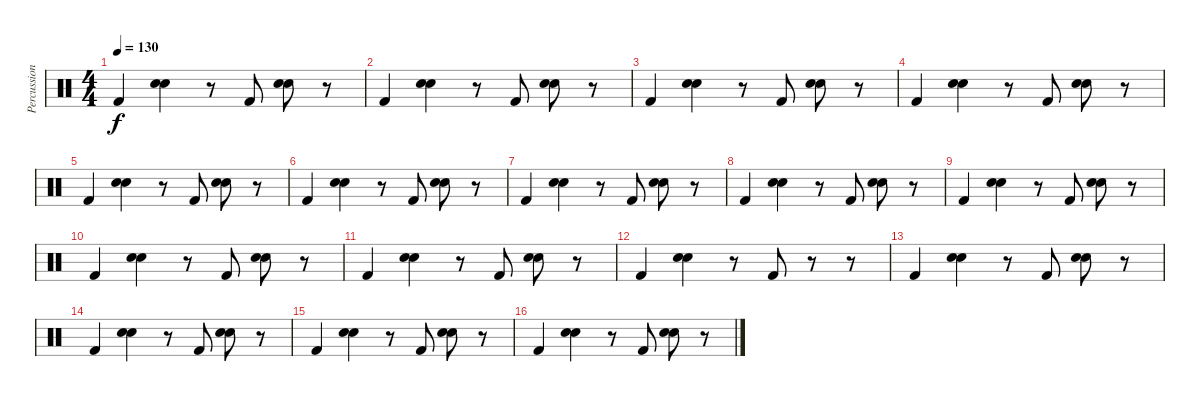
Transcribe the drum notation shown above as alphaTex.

\track ("Percussions" "Percussion") {instrument percussion}
\staff {score}
\articulation defaults
\ts (4 4)
\tempo 130
\clef neutral
\ks c "Kick (hit) 2".4{dy f}
("Electric Snare (hit)" "Electric Snare (hit)").4 r.8 "Kick (hit) 2".8 ("Electric Snare (hit)" "Electric Snare (hit)").8 r.8 |
"Kick (hit) 2".4 ("Electric Snare (hit)" "Electric Snare (hit)").4 r.8 "Kick (hit) 2".8 ("Electric Snare (hit)" "Electric Snare (hit)").8 r.8 |
"Kick (hit) 2".4 ("Electric Snare (hit)" "Electric Snare (hit)").4 r.8 "Kick (hit) 2".8 ("Electric Snare (hit)" "Electric Snare (hit)").8 r.8 |
"Kick (hit) 2".4 ("Electric Snare (hit)" "Electric Snare (hit)").4 r.8 "Kick (hit) 2".8 ("Electric Snare (hit)" "Electric Snare (hit)").8 r.8 |
"Kick (hit) 2".4 ("Electric Snare (hit)" "Electric Snare (hit)").4 r.8 "Kick (hit) 2".8 ("Electric Snare (hit)" "Electric Snare (hit)").8 r.8 |
"Kick (hit) 2".4 ("Electric Snare (hit)" "Electric Snare (hit)").4 r.8 "Kick (hit) 2".8 ("Electric Snare (hit)" "Electric Snare (hit)").8 r.8 |
"Kick (hit) 2".4 ("Electric Snare (hit)" "Electric Snare (hit)").4 r.8 "Kick (hit) 2".8 ("Electric Snare (hit)" "Electric Snare (hit)").8 r.8 |
"Kick (hit) 2".4 ("Electric Snare (hit)" "Electric Snare (hit)").4 r.8 "Kick (hit) 2".8 ("Electric Snare (hit)" "Electric Snare (hit)").8 r.8 |
"Kick (hit) 2".4 ("Electric Snare (hit)" "Electric Snare (hit)").4 r.8 "Kick (hit) 2".8 ("Electric Snare (hit)" "Electric Snare (hit)").8 r.8 |
"Kick (hit) 2".4 ("Electric Snare (hit)" "Electric Snare (hit)").4 r.8 "Kick (hit) 2".8 ("Electric Snare (hit)" "Electric Snare (hit)").8 r.8 |
"Kick (hit) 2".4 ("Electric Snare (hit)" "Electric Snare (hit)").4 r.8 "Kick (hit) 2".8 ("Electric Snare (hit)" "Electric Snare (hit)").8 r.8 |
"Kick (hit) 2".4 ("Electric Snare (hit)" "Electric Snare (hit)").4 r.8 "Kick (hit) 2".8 r.8 r.8 |
"Kick (hit) 2".4 ("Electric Snare (hit)" "Electric Snare (hit)").4 r.8 "Kick (hit) 2".8 ("Electric Snare (hit)" "Electric Snare (hit)").8 r.8 |
"Kick (hit) 2".4 ("Electric Snare (hit)" "Electric Snare (hit)").4 r.8 "Kick (hit) 2".8 ("Electric Snare (hit)" "Electric Snare (hit)").8 r.8 |
"Kick (hit) 2".4 ("Electric Snare (hit)" "Electric Snare (hit)").4 r.8 "Kick (hit) 2".8 ("Electric Snare (hit)" "Electric Snare (hit)").8 r.8 |
"Kick (hit) 2".4 ("Electric Snare (hit)" "Electric Snare (hit)").4 r.8 "Kick (hit) 2".8 ("Electric Snare (hit)" "Electric Snare (hit)").8 r.8
